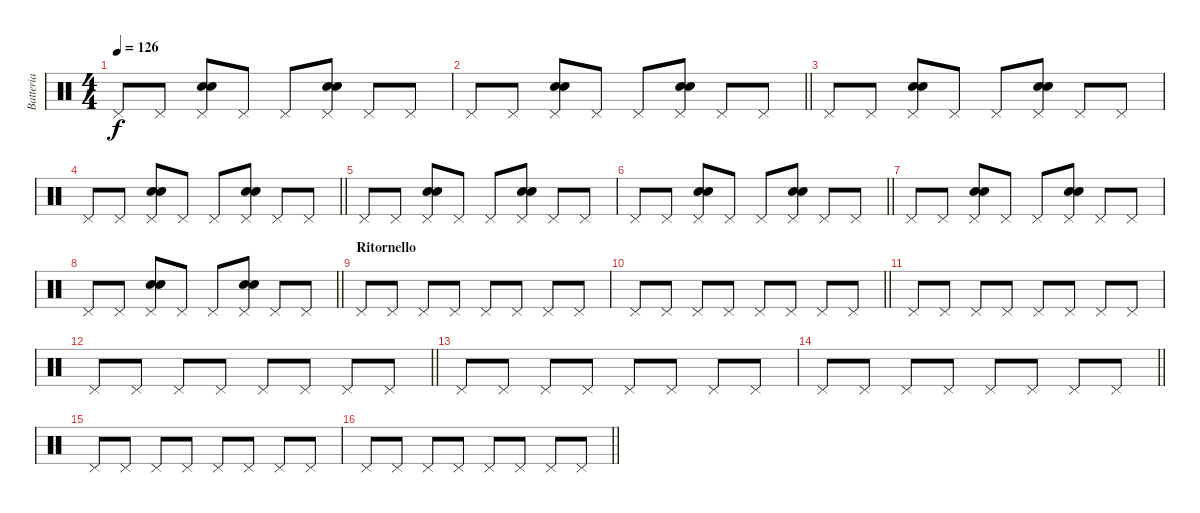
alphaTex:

\track ("Batteria" "Batteria") {instrument percussion}
\staff {score}
\articulation defaults
\ts (4 4)
\tempo 126
\clef neutral
\ks c "Pedal Hi-Hat (hit)".8{dy f} "Pedal Hi-Hat (hit)".8
("Pedal Hi-Hat (hit)" "Snare (hit) 2" "Electric Snare (hit)").8 "Pedal Hi-Hat (hit)".8 "Pedal Hi-Hat (hit)".8 ("Pedal Hi-Hat (hit)" "Snare (hit) 2" "Electric Snare (hit)").8 "Pedal Hi-Hat (hit)".8 "Pedal Hi-Hat (hit)".8 |
\barLineRight lightlight "Pedal Hi-Hat (hit)".8 "Pedal Hi-Hat (hit)".8
("Pedal Hi-Hat (hit)" "Snare (hit) 2" "Electric Snare (hit)").8 "Pedal Hi-Hat (hit)".8 "Pedal Hi-Hat (hit)".8 ("Pedal Hi-Hat (hit)" "Snare (hit) 2" "Electric Snare (hit)").8 "Pedal Hi-Hat (hit)".8 "Pedal Hi-Hat (hit)".8 |
"Pedal Hi-Hat (hit)".8 "Pedal Hi-Hat (hit)".8 ("Pedal Hi-Hat (hit)" "Snare (hit) 2" "Electric Snare (hit)").8 "Pedal Hi-Hat (hit)".8 "Pedal Hi-Hat (hit)".8 ("Pedal Hi-Hat (hit)" "Snare (hit) 2" "Electric Snare (hit)").8 "Pedal Hi-Hat (hit)".8 "Pedal Hi-Hat (hit)".8 |
\barLineRight lightlight "Pedal Hi-Hat (hit)".8 "Pedal Hi-Hat (hit)".8
("Pedal Hi-Hat (hit)" "Snare (hit) 2" "Electric Snare (hit)").8 "Pedal Hi-Hat (hit)".8 "Pedal Hi-Hat (hit)".8 ("Pedal Hi-Hat (hit)" "Snare (hit) 2" "Electric Snare (hit)").8 "Pedal Hi-Hat (hit)".8 "Pedal Hi-Hat (hit)".8 |
"Pedal Hi-Hat (hit)".8 "Pedal Hi-Hat (hit)".8 ("Pedal Hi-Hat (hit)" "Snare (hit) 2" "Electric Snare (hit)").8 "Pedal Hi-Hat (hit)".8 "Pedal Hi-Hat (hit)".8 ("Pedal Hi-Hat (hit)" "Snare (hit) 2" "Electric Snare (hit)").8 "Pedal Hi-Hat (hit)".8 "Pedal Hi-Hat (hit)".8 |
\barLineRight lightlight "Pedal Hi-Hat (hit)".8 "Pedal Hi-Hat (hit)".8
("Pedal Hi-Hat (hit)" "Snare (hit) 2" "Electric Snare (hit)").8 "Pedal Hi-Hat (hit)".8 "Pedal Hi-Hat (hit)".8 ("Pedal Hi-Hat (hit)" "Snare (hit) 2" "Electric Snare (hit)").8 "Pedal Hi-Hat (hit)".8 "Pedal Hi-Hat (hit)".8 |
"Pedal Hi-Hat (hit)".8 "Pedal Hi-Hat (hit)".8 ("Pedal Hi-Hat (hit)" "Snare (hit) 2" "Electric Snare (hit)").8 "Pedal Hi-Hat (hit)".8 "Pedal Hi-Hat (hit)".8 ("Pedal Hi-Hat (hit)" "Snare (hit) 2" "Electric Snare (hit)").8 "Pedal Hi-Hat (hit)".8 "Pedal Hi-Hat (hit)".8 |
\barLineRight lightlight "Pedal Hi-Hat (hit)".8 "Pedal Hi-Hat (hit)".8
("Pedal Hi-Hat (hit)" "Snare (hit) 2" "Electric Snare (hit)").8 "Pedal Hi-Hat (hit)".8 "Pedal Hi-Hat (hit)".8 ("Pedal Hi-Hat (hit)" "Snare (hit) 2" "Electric Snare (hit)").8 "Pedal Hi-Hat (hit)".8 "Pedal Hi-Hat (hit)".8 |
\section ("" "Ritornello")
"Pedal Hi-Hat (hit)".8 "Pedal Hi-Hat (hit)".8 "Pedal Hi-Hat (hit)".8 "Pedal Hi-Hat (hit)".8 "Pedal Hi-Hat (hit)".8 "Pedal Hi-Hat (hit)".8 "Pedal Hi-Hat (hit)".8 "Pedal Hi-Hat (hit)".8 |
\barLineRight lightlight "Pedal Hi-Hat (hit)".8 "Pedal Hi-Hat (hit)".8 "Pedal Hi-Hat (hit)".8 "Pedal Hi-Hat (hit)".8 "Pedal Hi-Hat (hit)".8 "Pedal Hi-Hat (hit)".8 "Pedal Hi-Hat (hit)".8 "Pedal Hi-Hat (hit)".8
|
"Pedal Hi-Hat (hit)".8 "Pedal Hi-Hat (hit)".8 "Pedal Hi-Hat (hit)".8 "Pedal Hi-Hat (hit)".8 "Pedal Hi-Hat (hit)".8 "Pedal Hi-Hat (hit)".8 "Pedal Hi-Hat (hit)".8 "Pedal Hi-Hat (hit)".8 |
\barLineRight lightlight "Pedal Hi-Hat (hit)".8 "Pedal Hi-Hat (hit)".8 "Pedal Hi-Hat (hit)".8 "Pedal Hi-Hat (hit)".8 "Pedal Hi-Hat (hit)".8 "Pedal Hi-Hat (hit)".8 "Pedal Hi-Hat (hit)".8 "Pedal Hi-Hat (hit)".8
|
"Pedal Hi-Hat (hit)".8 "Pedal Hi-Hat (hit)".8 "Pedal Hi-Hat (hit)".8 "Pedal Hi-Hat (hit)".8 "Pedal Hi-Hat (hit)".8 "Pedal Hi-Hat (hit)".8 "Pedal Hi-Hat (hit)".8 "Pedal Hi-Hat (hit)".8 |
\barLineRight lightlight "Pedal Hi-Hat (hit)".8 "Pedal Hi-Hat (hit)".8 "Pedal Hi-Hat (hit)".8 "Pedal Hi-Hat (hit)".8 "Pedal Hi-Hat (hit)".8 "Pedal Hi-Hat (hit)".8 "Pedal Hi-Hat (hit)".8 "Pedal Hi-Hat (hit)".8
|
"Pedal Hi-Hat (hit)".8 "Pedal Hi-Hat (hit)".8 "Pedal Hi-Hat (hit)".8 "Pedal Hi-Hat (hit)".8 "Pedal Hi-Hat (hit)".8 "Pedal Hi-Hat (hit)".8 "Pedal Hi-Hat (hit)".8 "Pedal Hi-Hat (hit)".8 |
\barLineRight lightlight "Pedal Hi-Hat (hit)".8 "Pedal Hi-Hat (hit)".8 "Pedal Hi-Hat (hit)".8 "Pedal Hi-Hat (hit)".8 "Pedal Hi-Hat (hit)".8 "Pedal Hi-Hat (hit)".8 "Pedal Hi-Hat (hit)".8 "Pedal Hi-Hat (hit)".8
